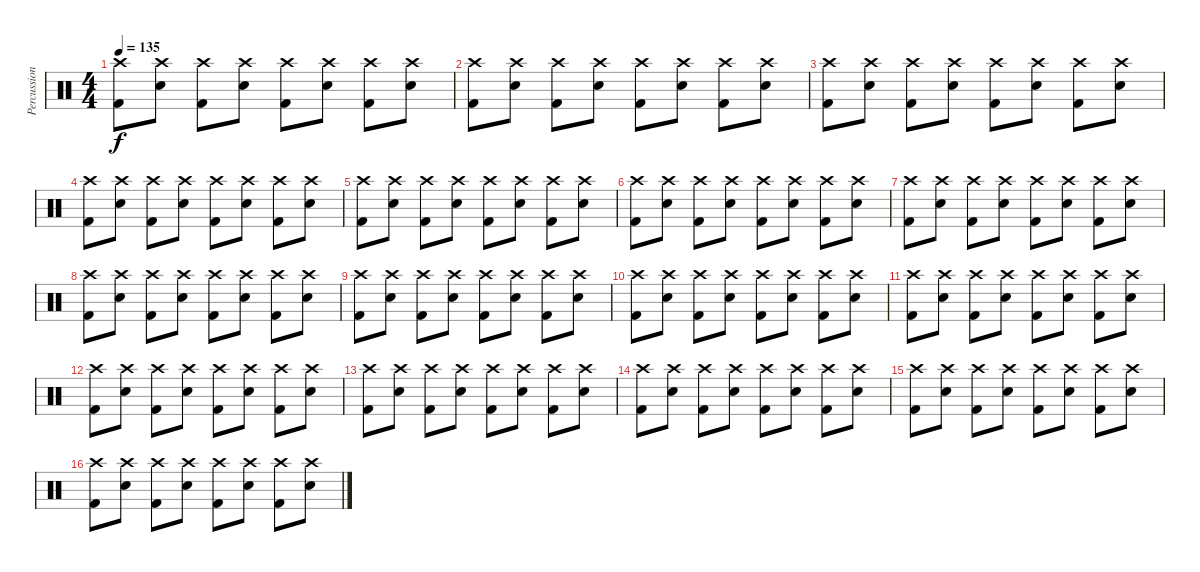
\track ("Percussion" "Percussion") {instrument percussion}
\staff {score}
\articulation defaults
\ts (4 4)
\tempo 135
\clef neutral
\ks c
("Crash high (hit)" "Kick (hit) 2").8{dy f} ("Crash high (hit)" "Electric Snare (hit)").8 ("Crash high (hit)" "Kick (hit) 2").8 ("Crash high (hit)" "Electric Snare (hit)").8 ("Crash high (hit)" "Kick (hit) 2").8 ("Crash high (hit)" "Electric Snare (hit)").8 ("Crash high (hit)" "Kick (hit) 2").8 ("Crash high (hit)" "Electric Snare (hit)").8 |
("Crash high (hit)" "Kick (hit) 2").8 ("Crash high (hit)" "Electric Snare (hit)").8 ("Crash high (hit)" "Kick (hit) 2").8 ("Crash high (hit)" "Electric Snare (hit)").8 ("Crash high (hit)" "Kick (hit) 2").8 ("Crash high (hit)" "Electric Snare (hit)").8 ("Crash high (hit)" "Kick (hit) 2").8 ("Crash high (hit)" "Electric Snare (hit)").8 |
("Crash high (hit)" "Kick (hit) 2").8 ("Crash high (hit)" "Electric Snare (hit)").8 ("Crash high (hit)" "Kick (hit) 2").8 ("Crash high (hit)" "Electric Snare (hit)").8 ("Crash high (hit)" "Kick (hit) 2").8 ("Crash high (hit)" "Electric Snare (hit)").8 ("Crash high (hit)" "Kick (hit) 2").8 ("Crash high (hit)" "Electric Snare (hit)").8 |
("Crash high (hit)" "Kick (hit) 2").8 ("Crash high (hit)" "Electric Snare (hit)").8 ("Crash high (hit)" "Kick (hit) 2").8 ("Crash high (hit)" "Electric Snare (hit)").8 ("Crash high (hit)" "Kick (hit) 2").8 ("Crash high (hit)" "Electric Snare (hit)").8 ("Crash high (hit)" "Kick (hit) 2").8 ("Crash high (hit)" "Electric Snare (hit)").8 |
("Crash high (hit)" "Kick (hit) 2").8 ("Crash high (hit)" "Electric Snare (hit)").8 ("Crash high (hit)" "Kick (hit) 2").8 ("Crash high (hit)" "Electric Snare (hit)").8 ("Crash high (hit)" "Kick (hit) 2").8 ("Crash high (hit)" "Electric Snare (hit)").8 ("Crash high (hit)" "Kick (hit) 2").8 ("Crash high (hit)" "Electric Snare (hit)").8 |
("Crash high (hit)" "Kick (hit) 2").8 ("Crash high (hit)" "Electric Snare (hit)").8 ("Crash high (hit)" "Kick (hit) 2").8 ("Crash high (hit)" "Electric Snare (hit)").8 ("Crash high (hit)" "Kick (hit) 2").8 ("Crash high (hit)" "Electric Snare (hit)").8 ("Crash high (hit)" "Kick (hit) 2").8 ("Crash high (hit)" "Electric Snare (hit)").8 |
("Crash high (hit)" "Kick (hit) 2").8 ("Crash high (hit)" "Electric Snare (hit)").8 ("Crash high (hit)" "Kick (hit) 2").8 ("Crash high (hit)" "Electric Snare (hit)").8 ("Crash high (hit)" "Kick (hit) 2").8 ("Crash high (hit)" "Electric Snare (hit)").8 ("Crash high (hit)" "Kick (hit) 2").8 ("Crash high (hit)" "Electric Snare (hit)").8 |
("Crash high (hit)" "Kick (hit) 2").8 ("Crash high (hit)" "Electric Snare (hit)").8 ("Crash high (hit)" "Kick (hit) 2").8 ("Crash high (hit)" "Electric Snare (hit)").8 ("Crash high (hit)" "Kick (hit) 2").8 ("Crash high (hit)" "Electric Snare (hit)").8 ("Crash high (hit)" "Kick (hit) 2").8 ("Crash high (hit)" "Electric Snare (hit)").8 |
("Crash high (hit)" "Kick (hit) 2").8 ("Crash high (hit)" "Electric Snare (hit)").8 ("Crash high (hit)" "Kick (hit) 2").8 ("Crash high (hit)" "Electric Snare (hit)").8 ("Crash high (hit)" "Kick (hit) 2").8 ("Crash high (hit)" "Electric Snare (hit)").8 ("Crash high (hit)" "Kick (hit) 2").8 ("Crash high (hit)" "Electric Snare (hit)").8 |
("Crash high (hit)" "Kick (hit) 2").8 ("Crash high (hit)" "Electric Snare (hit)").8 ("Crash high (hit)" "Kick (hit) 2").8 ("Crash high (hit)" "Electric Snare (hit)").8 ("Crash high (hit)" "Kick (hit) 2").8 ("Crash high (hit)" "Electric Snare (hit)").8 ("Crash high (hit)" "Kick (hit) 2").8 ("Crash high (hit)" "Electric Snare (hit)").8 |
("Crash high (hit)" "Kick (hit) 2").8 ("Crash high (hit)" "Electric Snare (hit)").8 ("Crash high (hit)" "Kick (hit) 2").8 ("Crash high (hit)" "Electric Snare (hit)").8 ("Crash high (hit)" "Kick (hit) 2").8 ("Crash high (hit)" "Electric Snare (hit)").8 ("Crash high (hit)" "Kick (hit) 2").8 ("Crash high (hit)" "Electric Snare (hit)").8 |
("Crash high (hit)" "Kick (hit) 2").8 ("Crash high (hit)" "Electric Snare (hit)").8 ("Crash high (hit)" "Kick (hit) 2").8 ("Crash high (hit)" "Electric Snare (hit)").8 ("Crash high (hit)" "Kick (hit) 2").8 ("Crash high (hit)" "Electric Snare (hit)").8 ("Crash high (hit)" "Kick (hit) 2").8 ("Crash high (hit)" "Electric Snare (hit)").8 |
("Crash high (hit)" "Kick (hit) 2").8 ("Crash high (hit)" "Electric Snare (hit)").8 ("Crash high (hit)" "Kick (hit) 2").8 ("Crash high (hit)" "Electric Snare (hit)").8 ("Crash high (hit)" "Kick (hit) 2").8 ("Crash high (hit)" "Electric Snare (hit)").8 ("Crash high (hit)" "Kick (hit) 2").8 ("Crash high (hit)" "Electric Snare (hit)").8 |
("Crash high (hit)" "Kick (hit) 2").8 ("Crash high (hit)" "Electric Snare (hit)").8 ("Crash high (hit)" "Kick (hit) 2").8 ("Crash high (hit)" "Electric Snare (hit)").8 ("Crash high (hit)" "Kick (hit) 2").8 ("Crash high (hit)" "Electric Snare (hit)").8 ("Crash high (hit)" "Kick (hit) 2").8 ("Crash high (hit)" "Electric Snare (hit)").8 |
("Crash high (hit)" "Kick (hit) 2").8 ("Crash high (hit)" "Electric Snare (hit)").8 ("Crash high (hit)" "Kick (hit) 2").8 ("Crash high (hit)" "Electric Snare (hit)").8 ("Crash high (hit)" "Kick (hit) 2").8 ("Crash high (hit)" "Electric Snare (hit)").8 ("Crash high (hit)" "Kick (hit) 2").8 ("Crash high (hit)" "Electric Snare (hit)").8 |
("Crash high (hit)" "Kick (hit) 2").8 ("Crash high (hit)" "Electric Snare (hit)").8 ("Crash high (hit)" "Kick (hit) 2").8 ("Crash high (hit)" "Electric Snare (hit)").8 ("Crash high (hit)" "Kick (hit) 2").8 ("Crash high (hit)" "Electric Snare (hit)").8 ("Crash high (hit)" "Kick (hit) 2").8 ("Crash high (hit)" "Electric Snare (hit)").8
